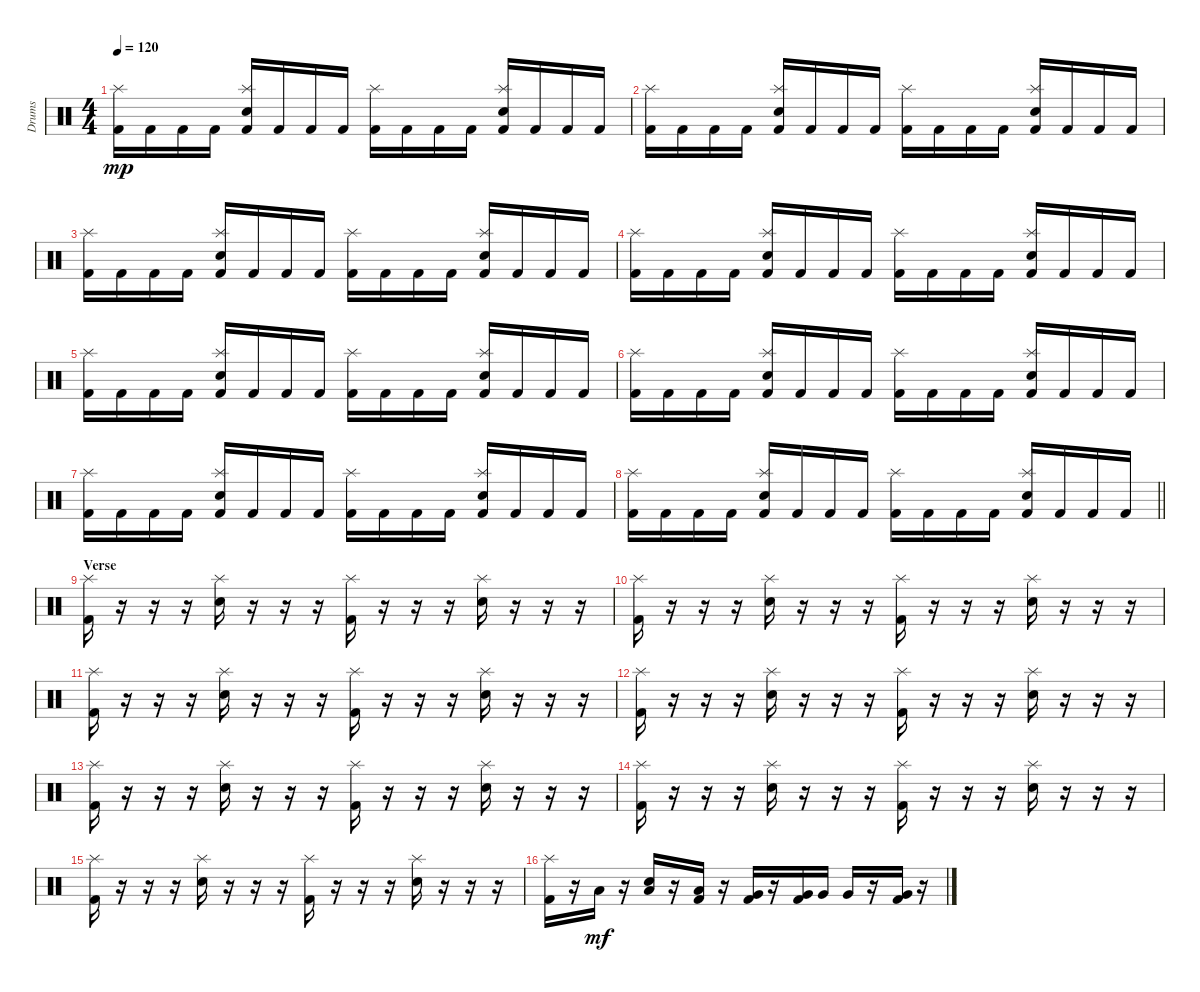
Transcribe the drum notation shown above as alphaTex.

\track ("Drums" "Drums") {instrument percussion}
\staff {score}
\articulation defaults
\ts (4 4)
\tempo 120
\clef neutral
\ks c
("Kick (hit) 2" "Splash (hit)").16{dy mp} "Kick (hit) 2".16 "Kick (hit) 2".16 "Kick (hit) 2".16 ("Kick (hit) 2" "Splash (hit)" "Snare (hit) 2").16 "Kick (hit) 2".16 "Kick (hit) 2".16 "Kick (hit) 2".16 ("Kick (hit) 2" "Splash (hit)").16 "Kick (hit) 2".16 "Kick (hit) 2".16 "Kick (hit) 2".16 ("Kick (hit) 2" "Splash (hit)" "Snare (hit) 2").16 "Kick (hit) 2".16 "Kick (hit) 2".16 "Kick (hit) 2".16 |
("Kick (hit) 2" "Splash (hit)").16 "Kick (hit) 2".16 "Kick (hit) 2".16 "Kick (hit) 2".16 ("Kick (hit) 2" "Splash (hit)" "Snare (hit) 2").16 "Kick (hit) 2".16 "Kick (hit) 2".16 "Kick (hit) 2".16 ("Kick (hit) 2" "Splash (hit)").16 "Kick (hit) 2".16 "Kick (hit) 2".16 "Kick (hit) 2".16 ("Kick (hit) 2" "Splash (hit)" "Snare (hit) 2").16 "Kick (hit) 2".16 "Kick (hit) 2".16 "Kick (hit) 2".16 |
("Kick (hit) 2" "Splash (hit)").16 "Kick (hit) 2".16 "Kick (hit) 2".16 "Kick (hit) 2".16 ("Kick (hit) 2" "Splash (hit)" "Snare (hit) 2").16 "Kick (hit) 2".16 "Kick (hit) 2".16 "Kick (hit) 2".16 ("Kick (hit) 2" "Splash (hit)").16 "Kick (hit) 2".16 "Kick (hit) 2".16 "Kick (hit) 2".16 ("Kick (hit) 2" "Splash (hit)" "Snare (hit) 2").16 "Kick (hit) 2".16 "Kick (hit) 2".16 "Kick (hit) 2".16 |
("Kick (hit) 2" "Splash (hit)").16 "Kick (hit) 2".16 "Kick (hit) 2".16 "Kick (hit) 2".16 ("Kick (hit) 2" "Splash (hit)" "Snare (hit) 2").16 "Kick (hit) 2".16 "Kick (hit) 2".16 "Kick (hit) 2".16 ("Kick (hit) 2" "Splash (hit)").16 "Kick (hit) 2".16 "Kick (hit) 2".16 "Kick (hit) 2".16 ("Kick (hit) 2" "Splash (hit)" "Snare (hit) 2").16 "Kick (hit) 2".16 "Kick (hit) 2".16 "Kick (hit) 2".16 |
("Kick (hit) 2" "Splash (hit)").16 "Kick (hit) 2".16 "Kick (hit) 2".16 "Kick (hit) 2".16 ("Kick (hit) 2" "Splash (hit)" "Snare (hit) 2").16 "Kick (hit) 2".16 "Kick (hit) 2".16 "Kick (hit) 2".16 ("Kick (hit) 2" "Splash (hit)").16 "Kick (hit) 2".16 "Kick (hit) 2".16 "Kick (hit) 2".16 ("Kick (hit) 2" "Splash (hit)" "Snare (hit) 2").16 "Kick (hit) 2".16 "Kick (hit) 2".16 "Kick (hit) 2".16 |
("Kick (hit) 2" "Splash (hit)").16 "Kick (hit) 2".16 "Kick (hit) 2".16 "Kick (hit) 2".16 ("Kick (hit) 2" "Splash (hit)" "Snare (hit) 2").16 "Kick (hit) 2".16 "Kick (hit) 2".16 "Kick (hit) 2".16 ("Kick (hit) 2" "Splash (hit)").16 "Kick (hit) 2".16 "Kick (hit) 2".16 "Kick (hit) 2".16 ("Kick (hit) 2" "Splash (hit)" "Snare (hit) 2").16 "Kick (hit) 2".16 "Kick (hit) 2".16 "Kick (hit) 2".16 |
("Kick (hit) 2" "Splash (hit)").16 "Kick (hit) 2".16 "Kick (hit) 2".16 "Kick (hit) 2".16 ("Kick (hit) 2" "Splash (hit)" "Snare (hit) 2").16 "Kick (hit) 2".16 "Kick (hit) 2".16 "Kick (hit) 2".16 ("Kick (hit) 2" "Splash (hit)").16 "Kick (hit) 2".16 "Kick (hit) 2".16 "Kick (hit) 2".16 ("Kick (hit) 2" "Splash (hit)" "Snare (hit) 2").16 "Kick (hit) 2".16 "Kick (hit) 2".16 "Kick (hit) 2".16 |
\barLineRight lightlight
("Kick (hit) 2" "Splash (hit)").16 "Kick (hit) 2".16 "Kick (hit) 2".16 "Kick (hit) 2".16 ("Kick (hit) 2" "Splash (hit)" "Snare (hit) 2").16 "Kick (hit) 2".16 "Kick (hit) 2".16 "Kick (hit) 2".16 ("Kick (hit) 2" "Splash (hit)").16 "Kick (hit) 2".16 "Kick (hit) 2".16 "Kick (hit) 2".16 ("Kick (hit) 2" "Splash (hit)" "Snare (hit) 2").16 "Kick (hit) 2".16 "Kick (hit) 2".16 "Kick (hit) 2".16 |
\section ("" "Verse")
("Kick (hit) 2" "Splash (hit)").16 r.16 r.16 r.16 ("Splash (hit)" "Snare (hit) 2").16 r.16 r.16 r.16 ("Kick (hit) 2" "Splash (hit)").16 r.16 r.16 r.16 ("Splash (hit)" "Snare (hit) 2").16 r.16 r.16 r.16 |
("Kick (hit) 2" "Splash (hit)").16 r.16 r.16 r.16 ("Splash (hit)" "Snare (hit) 2").16 r.16 r.16 r.16 ("Kick (hit) 2" "Splash (hit)").16 r.16 r.16 r.16 ("Splash (hit)" "Snare (hit) 2").16 r.16 r.16 r.16 |
("Kick (hit) 2" "Splash (hit)").16 r.16 r.16 r.16 ("Splash (hit)" "Snare (hit) 2").16 r.16 r.16 r.16 ("Kick (hit) 2" "Splash (hit)").16 r.16 r.16 r.16 ("Splash (hit)" "Snare (hit) 2").16 r.16 r.16 r.16 |
("Kick (hit) 2" "Splash (hit)").16 r.16 r.16 r.16 ("Splash (hit)" "Snare (hit) 2").16 r.16 r.16 r.16 ("Kick (hit) 2" "Splash (hit)").16 r.16 r.16 r.16 ("Splash (hit)" "Snare (hit) 2").16 r.16 r.16 r.16 |
("Kick (hit) 2" "Splash (hit)").16 r.16 r.16 r.16 ("Splash (hit)" "Snare (hit) 2").16 r.16 r.16 r.16 ("Kick (hit) 2" "Splash (hit)").16 r.16 r.16 r.16 ("Splash (hit)" "Snare (hit) 2").16 r.16 r.16 r.16 |
("Kick (hit) 2" "Splash (hit)").16 r.16 r.16 r.16 ("Splash (hit)" "Snare (hit) 2").16 r.16 r.16 r.16 ("Kick (hit) 2" "Splash (hit)").16 r.16 r.16 r.16 ("Splash (hit)" "Snare (hit) 2").16 r.16 r.16 r.16 |
("Kick (hit) 2" "Splash (hit)").16 r.16 r.16 r.16 ("Splash (hit)" "Snare (hit) 2").16 r.16 r.16 r.16 ("Kick (hit) 2" "Splash (hit)").16 r.16 r.16 r.16 ("Splash (hit)" "Snare (hit) 2").16 r.16 r.16 r.16 |
("Kick (hit) 2" "Splash (hit)").16 r.16 "Low Tom (hit)".16{dy mf} r.16 ("Low Tom (hit)" "Snare (hit) 2").16 r.16 ("Kick (hit) 2" "Low Tom (hit)").16 r.16 ("Kick (hit) 2" "Very Low Tom (hit)").16 r.16 ("Kick (hit) 2" "Very Low Tom (hit)").16 "Very Low Tom (hit)".16 "Very Low Tom (hit)".16 r.16 ("Kick (hit) 2" "Very Low Tom (hit)").16 r.16
